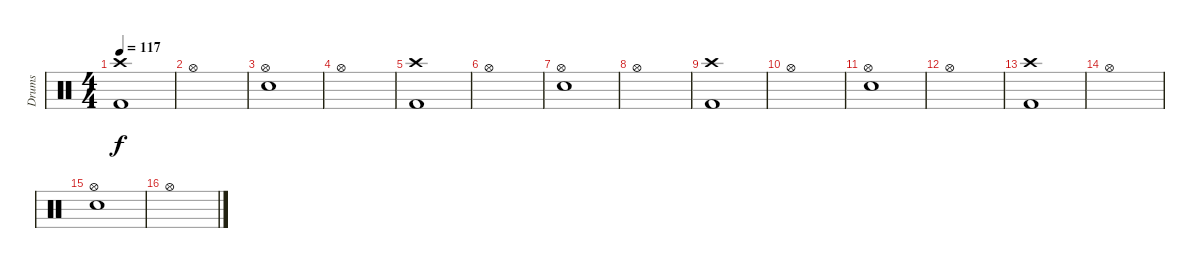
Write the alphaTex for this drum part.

\track ("Drums" "Drums") {instrument percussion}
\staff {score}
\articulation defaults
\ts (4 4)
\tempo 117
\clef neutral
\ks c
("Crash high (hit)" "Kick (hit) 2").1{dy f} |
"Hi-Hat (open)".1 |
("Hi-Hat (open)" "Snare (hit) 2").1 |
"Hi-Hat (open)".1 |
("Crash high (hit)" "Kick (hit) 2").1 |
"Hi-Hat (open)".1 |
("Hi-Hat (open)" "Snare (hit) 2").1 |
"Hi-Hat (open)".1 |
("Crash high (hit)" "Kick (hit) 2").1 |
"Hi-Hat (open)".1 |
("Hi-Hat (open)" "Snare (hit) 2").1 |
"Hi-Hat (open)".1 |
("Crash high (hit)" "Kick (hit) 2").1 |
"Hi-Hat (open)".1 |
("Hi-Hat (open)" "Snare (hit) 2").1 |
"Hi-Hat (open)".1
